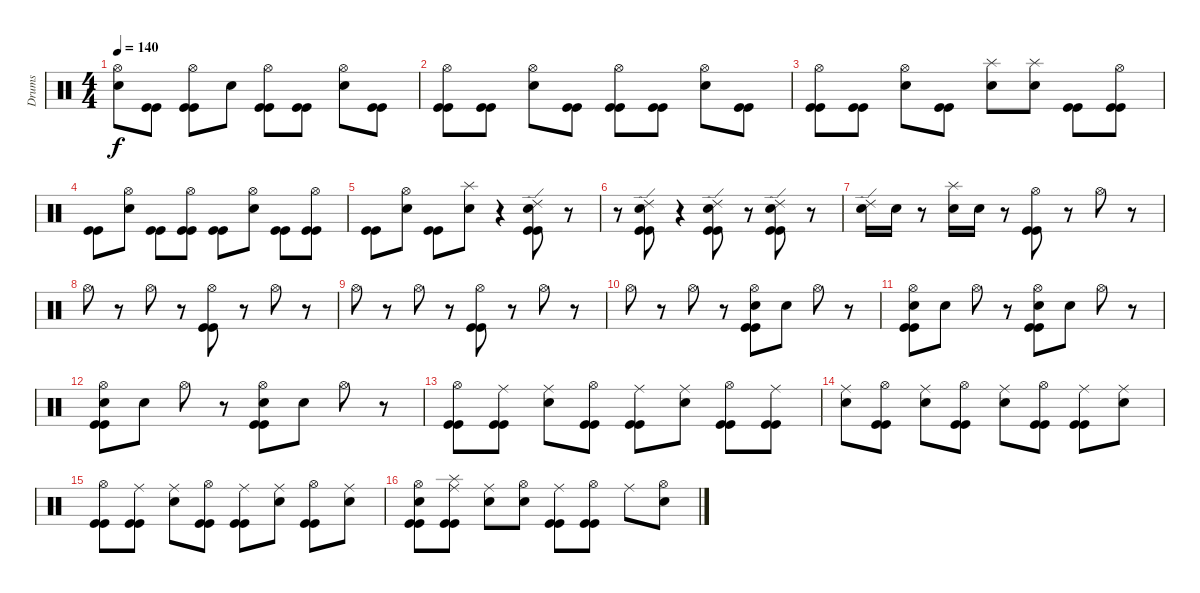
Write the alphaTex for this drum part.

\track ("Drums" "Drums") {instrument percussion}
\staff {score}
\articulation defaults
\ts (4 4)
\tempo 140
\clef neutral
\ks c
("Hi-Hat (open)" "Electric Snare (hit)").8{dy f} ("Kick (hit)" "Kick (hit)").8 ("Hi-Hat (open)" "Kick (hit)" "Kick (hit)").8 "Electric Snare (hit)".8 ("Hi-Hat (open)" "Kick (hit)" "Kick (hit)").8 ("Kick (hit)" "Kick (hit)").8 ("Hi-Hat (open)" "Electric Snare (hit)").8 ("Kick (hit)" "Kick (hit)").8 |
("Hi-Hat (open)" "Kick (hit)" "Kick (hit)").8 ("Kick (hit)" "Kick (hit)").8 ("Hi-Hat (open)" "Electric Snare (hit)").8 ("Kick (hit)" "Kick (hit)").8 ("Hi-Hat (open)" "Kick (hit)" "Kick (hit)").8 ("Kick (hit)" "Kick (hit)").8 ("Hi-Hat (open)" "Electric Snare (hit)").8 ("Kick (hit)" "Kick (hit)").8 |
("Hi-Hat (open)" "Kick (hit)" "Kick (hit)").8 ("Kick (hit)" "Kick (hit)").8 ("Hi-Hat (open)" "Electric Snare (hit)").8 ("Kick (hit)" "Kick (hit)").8 ("Splash (hit)" "Electric Snare (hit)").8 ("Splash (hit)" "Electric Snare (hit)").8 ("Kick (hit)" "Kick (hit)").8 ("Hi-Hat (open)" "Kick (hit)" "Kick (hit)").8 |
("Kick (hit)" "Kick (hit)").8 ("Hi-Hat (open)" "Electric Snare (hit)").8 ("Kick (hit)" "Kick (hit)").8 ("Hi-Hat (open)" "Kick (hit)" "Kick (hit)").8 ("Kick (hit)" "Kick (hit)").8 ("Hi-Hat (open)" "Electric Snare (hit)").8 ("Kick (hit)" "Kick (hit)").8 ("Hi-Hat (open)" "Kick (hit)" "Kick (hit)").8 |
("Kick (hit)" "Kick (hit)").8 ("Hi-Hat (open)" "Electric Snare (hit)").8 ("Kick (hit)" "Kick (hit)").8 ("Splash (hit)" "Electric Snare (hit)").8 r.4 ("Ride (edge) 2" "Electric Snare (hit)" "Kick (hit)" "Kick (hit)").8 r.8 |
r.8 ("Ride (edge) 2" "Electric Snare (hit)" "Kick (hit)" "Kick (hit)").8 r.4 ("Ride (edge) 2" "Electric Snare (hit)" "Kick (hit)" "Kick (hit)").8 r.8 ("Ride (edge) 2" "Electric Snare (hit)" "Kick (hit)" "Kick (hit)").8 r.8 |
("Ride (edge) 2" "Electric Snare (hit)").16 "Electric Snare (hit)".16 r.8 ("Splash (hit)" "Electric Snare (hit)").16 "Electric Snare (hit)".16 r.8 ("Hi-Hat (open)" "Kick (hit)" "Kick (hit)").8 r.8 "Hi-Hat (open)".8 r.8 |
"Hi-Hat (open)".8 r.8 "Hi-Hat (open)".8 r.8 ("Hi-Hat (open)" "Kick (hit)" "Kick (hit)").8 r.8 "Hi-Hat (open)".8 r.8 |
"Hi-Hat (open)".8 r.8 "Hi-Hat (open)".8 r.8 ("Hi-Hat (open)" "Kick (hit)" "Kick (hit)").8 r.8 "Hi-Hat (open)".8 r.8 |
"Hi-Hat (open)".8 r.8 "Hi-Hat (open)".8 r.8 ("Hi-Hat (open)" "Electric Snare (hit)" "Kick (hit)" "Kick (hit)").8 "Electric Snare (hit)".8 "Hi-Hat (open)".8 r.8 |
("Hi-Hat (open)" "Electric Snare (hit)" "Kick (hit)" "Kick (hit)").8 "Electric Snare (hit)".8 "Hi-Hat (open)".8 r.8 ("Hi-Hat (open)" "Electric Snare (hit)" "Kick (hit)" "Kick (hit)").8 "Electric Snare (hit)".8 "Hi-Hat (open)".8 r.8 |
("Hi-Hat (open)" "Electric Snare (hit)" "Kick (hit)" "Kick (hit)").8 "Electric Snare (hit)".8 "Hi-Hat (open)".8 r.8 ("Hi-Hat (open)" "Electric Snare (hit)" "Kick (hit)" "Kick (hit)").8 "Electric Snare (hit)".8 "Hi-Hat (open)".8 r.8 |
("Hi-Hat (open)" "Kick (hit)" "Kick (hit)").8 ("Ride (middle)" "Kick (hit)" "Kick (hit)").8 ("Ride (middle)" "Electric Snare (hit)").8 ("Hi-Hat (open)" "Kick (hit)" "Kick (hit)").8 ("Ride (middle)" "Kick (hit)" "Kick (hit)").8 ("Ride (middle)" "Electric Snare (hit)").8 ("Hi-Hat (open)" "Kick (hit)" "Kick (hit)").8 ("Ride (middle)" "Kick (hit)" "Kick (hit)").8 |
("Ride (middle)" "Electric Snare (hit)").8 ("Hi-Hat (open)" "Kick (hit)" "Kick (hit)").8 ("Ride (middle)" "Electric Snare (hit)").8 ("Hi-Hat (open)" "Kick (hit)" "Kick (hit)").8 ("Ride (middle)" "Electric Snare (hit)").8 ("Hi-Hat (open)" "Kick (hit)" "Kick (hit)").8 ("Ride (middle)" "Kick (hit)" "Kick (hit)").8 ("Ride (middle)" "Electric Snare (hit)").8 |
("Hi-Hat (open)" "Kick (hit)" "Kick (hit)").8 ("Ride (middle)" "Kick (hit)" "Kick (hit)").8 ("Ride (middle)" "Electric Snare (hit)").8 ("Hi-Hat (open)" "Kick (hit)" "Kick (hit)").8 ("Ride (middle)" "Kick (hit)" "Kick (hit)").8 ("Ride (middle)" "Electric Snare (hit)").8 ("Hi-Hat (open)" "Kick (hit)" "Kick (hit)").8 ("Ride (middle)" "Electric Snare (hit)").8 |
("Hi-Hat (open)" "Electric Snare (hit)" "Kick (hit)" "Kick (hit)").8 ("Ride (middle)" "Splash (hit)" "Kick (hit)" "Kick (hit)").8 ("Ride (middle)" "Electric Snare (hit)").8 ("Hi-Hat (open)" "Electric Snare (hit)").8 ("Ride (middle)" "Kick (hit)" "Kick (hit)").8 ("Hi-Hat (open)" "Kick (hit)" "Kick (hit)").8 "Ride (middle)".8 ("Hi-Hat (open)" "Electric Snare (hit)").8
